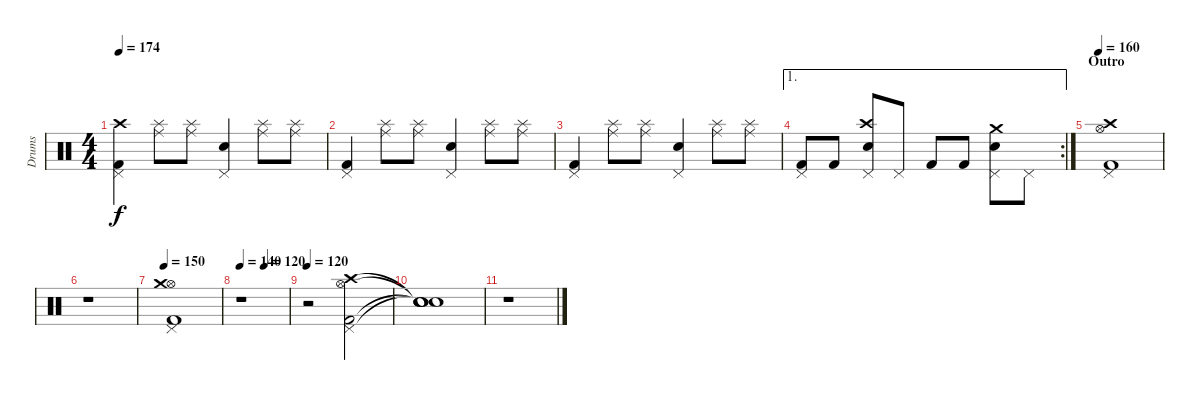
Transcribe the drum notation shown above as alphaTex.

\track ("Drums" "Drums") {instrument percussion}
\staff {score}
\articulation defaults
\ts (4 4)
\tempo 174
\clef neutral
\ks c
("Kick (hit) 2" "Pedal Hi-Hat (hit)" "Crash high (hit)").4{dy f} ("Splash (hit)" "Ride (middle)").8 ("Splash (hit)" "Ride (middle)").8 ("Snare (hit) 2" "Pedal Hi-Hat (hit)").4 ("Splash (hit)" "Ride (middle)").8 ("Splash (hit)" "Ride (middle)").8 |
("Kick (hit) 2" "Pedal Hi-Hat (hit)").4 ("Splash (hit)" "Ride (middle)").8 ("Splash (hit)" "Ride (middle)").8 ("Snare (hit) 2" "Pedal Hi-Hat (hit)").4 ("Splash (hit)" "Ride (middle)").8 ("Splash (hit)" "Ride (middle)").8 |
("Kick (hit) 2" "Pedal Hi-Hat (hit)").4 ("Splash (hit)" "Ride (middle)").8 ("Splash (hit)" "Ride (middle)").8 ("Snare (hit) 2" "Pedal Hi-Hat (hit)").4 ("Splash (hit)" "Ride (middle)").8 ("Splash (hit)" "Ride (middle)").8 |
\ae 1
\rc 2
("Kick (hit) 2" "Pedal Hi-Hat (hit)").8 "Kick (hit) 2".8 ("Snare (hit) 2" "Pedal Hi-Hat (hit)" "Crash high (hit)").8 "Pedal Hi-Hat (hit)".8 "Kick (hit) 2".8 "Kick (hit) 2".8 ("Snare (hit) 2" "Pedal Hi-Hat (hit)" "Crash medium (hit)").8 "Pedal Hi-Hat (hit)".8 |
\section ("" "Outro")
\tempo 160
("Kick (hit) 2" "Pedal Hi-Hat (hit)" "Hi-Hat (open)" "Crash high (hit)").1 |
r.1 |
\tempo 150
("Kick (hit) 2" "Pedal Hi-Hat (hit)" "Hi-Hat (open)" "Crash medium (hit)").1 |
\tempo 140
\tempo (120 0.5)
r.1 |
\tempo 120
r.2 ("Kick (hit) 2" "Pedal Hi-Hat (hit)" "Hi-Hat (open)" "Crash high (hit)").2 |
("Snare (hit)"{t} "Snare (hit)"{t} "Snare (hit)"{t} "Snare (hit)"{t}).1 |
r.1
